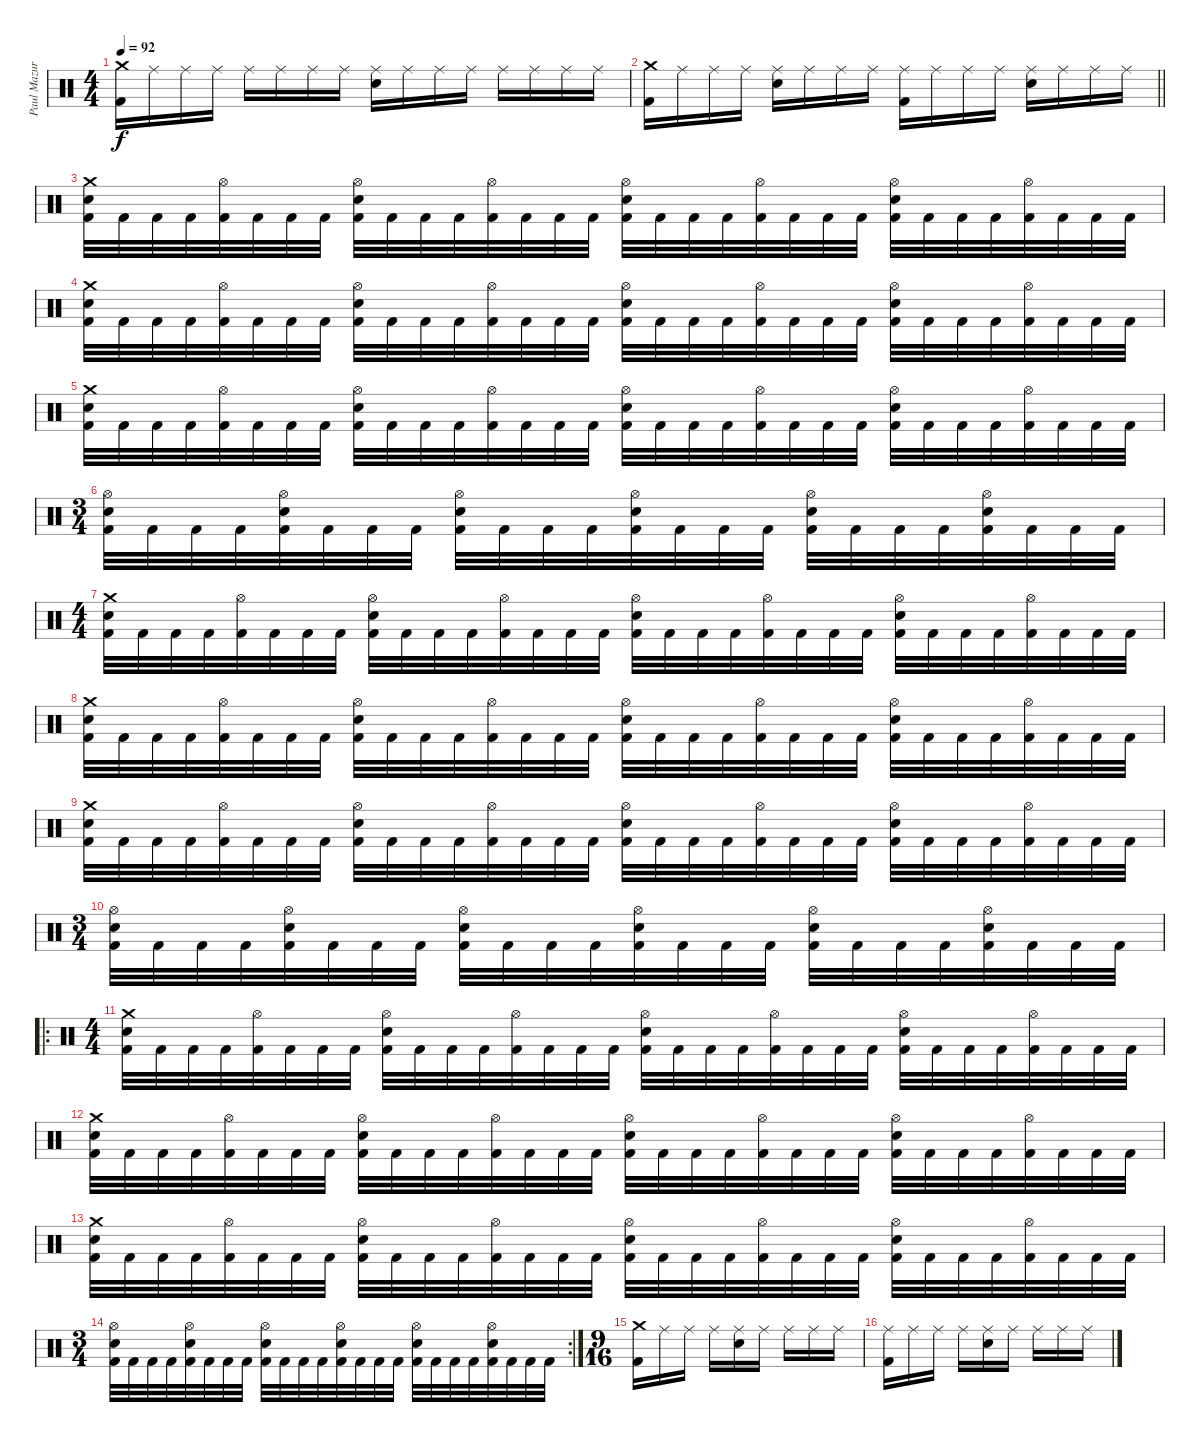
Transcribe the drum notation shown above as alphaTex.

\track ("Paul Mazurkiewicz" "Paul Mazur") {instrument percussion}
\staff {score}
\articulation defaults
\ts (4 4)
\tempo 92
\clef neutral
\ks c
("Crash medium (hit)" "Kick (hit) 2").16{dy f} "Ride (middle)".16 "Ride (middle)".16 "Ride (middle)".16 "Ride (middle)".16 "Ride (middle)".16 "Ride (middle)".16 "Ride (middle)".16 ("Ride (middle)" "Electric Snare (hit)").16 "Ride (middle)".16 "Ride (middle)".16 "Ride (middle)".16 "Ride (middle)".16 "Ride (middle)".16 "Ride (middle)".16 "Ride (middle)".16 |
\barLineRight lightlight
("Crash medium (hit)" "Kick (hit) 2").16 "Ride (middle)".16 "Ride (middle)".16 "Ride (middle)".16 ("Ride (middle)" "Electric Snare (hit)").16 "Ride (middle)".16 "Ride (middle)".16 "Ride (middle)".16 ("Ride (middle)" "Kick (hit) 2").16 "Ride (middle)".16 "Ride (middle)".16 "Ride (middle)".16 ("Ride (middle)" "Electric Snare (hit)").16 "Ride (middle)".16 "Ride (middle)".16 "Ride (middle)".16 |
("Crash medium (hit)" "Electric Snare (hit)" "Kick (hit) 2").32 "Kick (hit) 2".32 "Kick (hit) 2".32 "Kick (hit) 2".32 ("Hi-Hat (open)" "Kick (hit) 2").32 "Kick (hit) 2".32 "Kick (hit) 2".32 "Kick (hit) 2".32 ("Hi-Hat (open)" "Electric Snare (hit)" "Kick (hit) 2").32 "Kick (hit) 2".32 "Kick (hit) 2".32 "Kick (hit) 2".32 ("Hi-Hat (open)" "Kick (hit) 2").32 "Kick (hit) 2".32 "Kick (hit) 2".32 "Kick (hit) 2".32 ("Hi-Hat (open)" "Electric Snare (hit)" "Kick (hit) 2").32 "Kick (hit) 2".32 "Kick (hit) 2".32 "Kick (hit) 2".32 ("Hi-Hat (open)" "Kick (hit) 2").32 "Kick (hit) 2".32 "Kick (hit) 2".32 "Kick (hit) 2".32 ("Hi-Hat (open)" "Electric Snare (hit)" "Kick (hit) 2").32 "Kick (hit) 2".32 "Kick (hit) 2".32 "Kick (hit) 2".32 ("Hi-Hat (open)" "Kick (hit) 2").32 "Kick (hit) 2".32 "Kick (hit) 2".32 "Kick (hit) 2".32 |
("Crash medium (hit)" "Electric Snare (hit)" "Kick (hit) 2").32 "Kick (hit) 2".32 "Kick (hit) 2".32 "Kick (hit) 2".32 ("Hi-Hat (open)" "Kick (hit) 2").32 "Kick (hit) 2".32 "Kick (hit) 2".32 "Kick (hit) 2".32 ("Hi-Hat (open)" "Electric Snare (hit)" "Kick (hit) 2").32 "Kick (hit) 2".32 "Kick (hit) 2".32 "Kick (hit) 2".32 ("Hi-Hat (open)" "Kick (hit) 2").32 "Kick (hit) 2".32 "Kick (hit) 2".32 "Kick (hit) 2".32 ("Hi-Hat (open)" "Electric Snare (hit)" "Kick (hit) 2").32 "Kick (hit) 2".32 "Kick (hit) 2".32 "Kick (hit) 2".32 ("Hi-Hat (open)" "Kick (hit) 2").32 "Kick (hit) 2".32 "Kick (hit) 2".32 "Kick (hit) 2".32 ("Hi-Hat (open)" "Electric Snare (hit)" "Kick (hit) 2").32 "Kick (hit) 2".32 "Kick (hit) 2".32 "Kick (hit) 2".32 ("Hi-Hat (open)" "Kick (hit) 2").32 "Kick (hit) 2".32 "Kick (hit) 2".32 "Kick (hit) 2".32 |
("Crash medium (hit)" "Electric Snare (hit)" "Kick (hit) 2").32 "Kick (hit) 2".32 "Kick (hit) 2".32 "Kick (hit) 2".32 ("Hi-Hat (open)" "Kick (hit) 2").32 "Kick (hit) 2".32 "Kick (hit) 2".32 "Kick (hit) 2".32 ("Hi-Hat (open)" "Electric Snare (hit)" "Kick (hit) 2").32 "Kick (hit) 2".32 "Kick (hit) 2".32 "Kick (hit) 2".32 ("Hi-Hat (open)" "Kick (hit) 2").32 "Kick (hit) 2".32 "Kick (hit) 2".32 "Kick (hit) 2".32 ("Hi-Hat (open)" "Electric Snare (hit)" "Kick (hit) 2").32 "Kick (hit) 2".32 "Kick (hit) 2".32 "Kick (hit) 2".32 ("Hi-Hat (open)" "Kick (hit) 2").32 "Kick (hit) 2".32 "Kick (hit) 2".32 "Kick (hit) 2".32 ("Hi-Hat (open)" "Electric Snare (hit)" "Kick (hit) 2").32 "Kick (hit) 2".32 "Kick (hit) 2".32 "Kick (hit) 2".32 ("Hi-Hat (open)" "Kick (hit) 2").32 "Kick (hit) 2".32 "Kick (hit) 2".32 "Kick (hit) 2".32 |
\ts (3 4)
("Hi-Hat (open)" "Electric Snare (hit)" "Kick (hit) 2").32 "Kick (hit) 2".32 "Kick (hit) 2".32 "Kick (hit) 2".32 ("Hi-Hat (open)" "Electric Snare (hit)" "Kick (hit) 2").32 "Kick (hit) 2".32 "Kick (hit) 2".32 "Kick (hit) 2".32 ("Hi-Hat (open)" "Electric Snare (hit)" "Kick (hit) 2").32 "Kick (hit) 2".32 "Kick (hit) 2".32 "Kick (hit) 2".32 ("Hi-Hat (open)" "Electric Snare (hit)" "Kick (hit) 2").32 "Kick (hit) 2".32 "Kick (hit) 2".32 "Kick (hit) 2".32 ("Hi-Hat (open)" "Electric Snare (hit)" "Kick (hit) 2").32 "Kick (hit) 2".32 "Kick (hit) 2".32 "Kick (hit) 2".32 ("Hi-Hat (open)" "Electric Snare (hit)" "Kick (hit) 2").32 "Kick (hit) 2".32 "Kick (hit) 2".32 "Kick (hit) 2".32 |
\ts (4 4)
("Crash medium (hit)" "Electric Snare (hit)" "Kick (hit) 2").32 "Kick (hit) 2".32 "Kick (hit) 2".32 "Kick (hit) 2".32 ("Hi-Hat (open)" "Kick (hit) 2").32 "Kick (hit) 2".32 "Kick (hit) 2".32 "Kick (hit) 2".32 ("Hi-Hat (open)" "Electric Snare (hit)" "Kick (hit) 2").32 "Kick (hit) 2".32 "Kick (hit) 2".32 "Kick (hit) 2".32 ("Hi-Hat (open)" "Kick (hit) 2").32 "Kick (hit) 2".32 "Kick (hit) 2".32 "Kick (hit) 2".32 ("Hi-Hat (open)" "Electric Snare (hit)" "Kick (hit) 2").32 "Kick (hit) 2".32 "Kick (hit) 2".32 "Kick (hit) 2".32 ("Hi-Hat (open)" "Kick (hit) 2").32 "Kick (hit) 2".32 "Kick (hit) 2".32 "Kick (hit) 2".32 ("Hi-Hat (open)" "Electric Snare (hit)" "Kick (hit) 2").32 "Kick (hit) 2".32 "Kick (hit) 2".32 "Kick (hit) 2".32 ("Hi-Hat (open)" "Kick (hit) 2").32 "Kick (hit) 2".32 "Kick (hit) 2".32 "Kick (hit) 2".32 |
("Crash medium (hit)" "Electric Snare (hit)" "Kick (hit) 2").32 "Kick (hit) 2".32 "Kick (hit) 2".32 "Kick (hit) 2".32 ("Hi-Hat (open)" "Kick (hit) 2").32 "Kick (hit) 2".32 "Kick (hit) 2".32 "Kick (hit) 2".32 ("Hi-Hat (open)" "Electric Snare (hit)" "Kick (hit) 2").32 "Kick (hit) 2".32 "Kick (hit) 2".32 "Kick (hit) 2".32 ("Hi-Hat (open)" "Kick (hit) 2").32 "Kick (hit) 2".32 "Kick (hit) 2".32 "Kick (hit) 2".32 ("Hi-Hat (open)" "Electric Snare (hit)" "Kick (hit) 2").32 "Kick (hit) 2".32 "Kick (hit) 2".32 "Kick (hit) 2".32 ("Hi-Hat (open)" "Kick (hit) 2").32 "Kick (hit) 2".32 "Kick (hit) 2".32 "Kick (hit) 2".32 ("Hi-Hat (open)" "Electric Snare (hit)" "Kick (hit) 2").32 "Kick (hit) 2".32 "Kick (hit) 2".32 "Kick (hit) 2".32 ("Hi-Hat (open)" "Kick (hit) 2").32 "Kick (hit) 2".32 "Kick (hit) 2".32 "Kick (hit) 2".32 |
("Crash medium (hit)" "Electric Snare (hit)" "Kick (hit) 2").32 "Kick (hit) 2".32 "Kick (hit) 2".32 "Kick (hit) 2".32 ("Hi-Hat (open)" "Kick (hit) 2").32 "Kick (hit) 2".32 "Kick (hit) 2".32 "Kick (hit) 2".32 ("Hi-Hat (open)" "Electric Snare (hit)" "Kick (hit) 2").32 "Kick (hit) 2".32 "Kick (hit) 2".32 "Kick (hit) 2".32 ("Hi-Hat (open)" "Kick (hit) 2").32 "Kick (hit) 2".32 "Kick (hit) 2".32 "Kick (hit) 2".32 ("Hi-Hat (open)" "Electric Snare (hit)" "Kick (hit) 2").32 "Kick (hit) 2".32 "Kick (hit) 2".32 "Kick (hit) 2".32 ("Hi-Hat (open)" "Kick (hit) 2").32 "Kick (hit) 2".32 "Kick (hit) 2".32 "Kick (hit) 2".32 ("Hi-Hat (open)" "Electric Snare (hit)" "Kick (hit) 2").32 "Kick (hit) 2".32 "Kick (hit) 2".32 "Kick (hit) 2".32 ("Hi-Hat (open)" "Kick (hit) 2").32 "Kick (hit) 2".32 "Kick (hit) 2".32 "Kick (hit) 2".32 |
\ts (3 4)
("Hi-Hat (open)" "Electric Snare (hit)" "Kick (hit) 2").32 "Kick (hit) 2".32 "Kick (hit) 2".32 "Kick (hit) 2".32 ("Hi-Hat (open)" "Electric Snare (hit)" "Kick (hit) 2").32 "Kick (hit) 2".32 "Kick (hit) 2".32 "Kick (hit) 2".32 ("Hi-Hat (open)" "Electric Snare (hit)" "Kick (hit) 2").32 "Kick (hit) 2".32 "Kick (hit) 2".32 "Kick (hit) 2".32 ("Hi-Hat (open)" "Electric Snare (hit)" "Kick (hit) 2").32 "Kick (hit) 2".32 "Kick (hit) 2".32 "Kick (hit) 2".32 ("Hi-Hat (open)" "Electric Snare (hit)" "Kick (hit) 2").32 "Kick (hit) 2".32 "Kick (hit) 2".32 "Kick (hit) 2".32 ("Hi-Hat (open)" "Electric Snare (hit)" "Kick (hit) 2").32 "Kick (hit) 2".32 "Kick (hit) 2".32 "Kick (hit) 2".32 |
\ro
\ts (4 4)
("Crash medium (hit)" "Electric Snare (hit)" "Kick (hit) 2").32 "Kick (hit) 2".32 "Kick (hit) 2".32 "Kick (hit) 2".32 ("Hi-Hat (open)" "Kick (hit) 2").32 "Kick (hit) 2".32 "Kick (hit) 2".32 "Kick (hit) 2".32 ("Hi-Hat (open)" "Electric Snare (hit)" "Kick (hit) 2").32 "Kick (hit) 2".32 "Kick (hit) 2".32 "Kick (hit) 2".32 ("Hi-Hat (open)" "Kick (hit) 2").32 "Kick (hit) 2".32 "Kick (hit) 2".32 "Kick (hit) 2".32 ("Hi-Hat (open)" "Electric Snare (hit)" "Kick (hit) 2").32 "Kick (hit) 2".32 "Kick (hit) 2".32 "Kick (hit) 2".32 ("Hi-Hat (open)" "Kick (hit) 2").32 "Kick (hit) 2".32 "Kick (hit) 2".32 "Kick (hit) 2".32 ("Hi-Hat (open)" "Electric Snare (hit)" "Kick (hit) 2").32 "Kick (hit) 2".32 "Kick (hit) 2".32 "Kick (hit) 2".32 ("Hi-Hat (open)" "Kick (hit) 2").32 "Kick (hit) 2".32 "Kick (hit) 2".32 "Kick (hit) 2".32 |
("Crash medium (hit)" "Electric Snare (hit)" "Kick (hit) 2").32 "Kick (hit) 2".32 "Kick (hit) 2".32 "Kick (hit) 2".32 ("Hi-Hat (open)" "Kick (hit) 2").32 "Kick (hit) 2".32 "Kick (hit) 2".32 "Kick (hit) 2".32 ("Hi-Hat (open)" "Electric Snare (hit)" "Kick (hit) 2").32 "Kick (hit) 2".32 "Kick (hit) 2".32 "Kick (hit) 2".32 ("Hi-Hat (open)" "Kick (hit) 2").32 "Kick (hit) 2".32 "Kick (hit) 2".32 "Kick (hit) 2".32 ("Hi-Hat (open)" "Electric Snare (hit)" "Kick (hit) 2").32 "Kick (hit) 2".32 "Kick (hit) 2".32 "Kick (hit) 2".32 ("Hi-Hat (open)" "Kick (hit) 2").32 "Kick (hit) 2".32 "Kick (hit) 2".32 "Kick (hit) 2".32 ("Hi-Hat (open)" "Electric Snare (hit)" "Kick (hit) 2").32 "Kick (hit) 2".32 "Kick (hit) 2".32 "Kick (hit) 2".32 ("Hi-Hat (open)" "Kick (hit) 2").32 "Kick (hit) 2".32 "Kick (hit) 2".32 "Kick (hit) 2".32 |
("Crash medium (hit)" "Electric Snare (hit)" "Kick (hit) 2").32 "Kick (hit) 2".32 "Kick (hit) 2".32 "Kick (hit) 2".32 ("Hi-Hat (open)" "Kick (hit) 2").32 "Kick (hit) 2".32 "Kick (hit) 2".32 "Kick (hit) 2".32 ("Hi-Hat (open)" "Electric Snare (hit)" "Kick (hit) 2").32 "Kick (hit) 2".32 "Kick (hit) 2".32 "Kick (hit) 2".32 ("Hi-Hat (open)" "Kick (hit) 2").32 "Kick (hit) 2".32 "Kick (hit) 2".32 "Kick (hit) 2".32 ("Hi-Hat (open)" "Electric Snare (hit)" "Kick (hit) 2").32 "Kick (hit) 2".32 "Kick (hit) 2".32 "Kick (hit) 2".32 ("Hi-Hat (open)" "Kick (hit) 2").32 "Kick (hit) 2".32 "Kick (hit) 2".32 "Kick (hit) 2".32 ("Hi-Hat (open)" "Electric Snare (hit)" "Kick (hit) 2").32 "Kick (hit) 2".32 "Kick (hit) 2".32 "Kick (hit) 2".32 ("Hi-Hat (open)" "Kick (hit) 2").32 "Kick (hit) 2".32 "Kick (hit) 2".32 "Kick (hit) 2".32 |
\rc 2
\ts (3 4)
("Hi-Hat (open)" "Electric Snare (hit)" "Kick (hit) 2").32 "Kick (hit) 2".32 "Kick (hit) 2".32 "Kick (hit) 2".32 ("Hi-Hat (open)" "Electric Snare (hit)" "Kick (hit) 2").32 "Kick (hit) 2".32 "Kick (hit) 2".32 "Kick (hit) 2".32 ("Hi-Hat (open)" "Electric Snare (hit)" "Kick (hit) 2").32 "Kick (hit) 2".32 "Kick (hit) 2".32 "Kick (hit) 2".32 ("Hi-Hat (open)" "Electric Snare (hit)" "Kick (hit) 2").32 "Kick (hit) 2".32 "Kick (hit) 2".32 "Kick (hit) 2".32 ("Hi-Hat (open)" "Electric Snare (hit)" "Kick (hit) 2").32 "Kick (hit) 2".32 "Kick (hit) 2".32 "Kick (hit) 2".32 ("Hi-Hat (open)" "Electric Snare (hit)" "Kick (hit) 2").32 "Kick (hit) 2".32 "Kick (hit) 2".32 "Kick (hit) 2".32 |
\ts (9 16)
("Crash medium (hit)" "Kick (hit) 2").16 "Ride (middle)".16 "Ride (middle)".16 "Ride (middle)".16 ("Ride (middle)" "Electric Snare (hit)").16 "Ride (middle)".16 "Ride (middle)".16 "Ride (middle)".16 "Ride (middle)".16 |
("Ride (middle)" "Kick (hit) 2").16 "Ride (middle)".16 "Ride (middle)".16 "Ride (middle)".16 ("Ride (middle)" "Electric Snare (hit)").16 "Ride (middle)".16 "Ride (middle)".16 "Ride (middle)".16 "Ride (middle)".16
